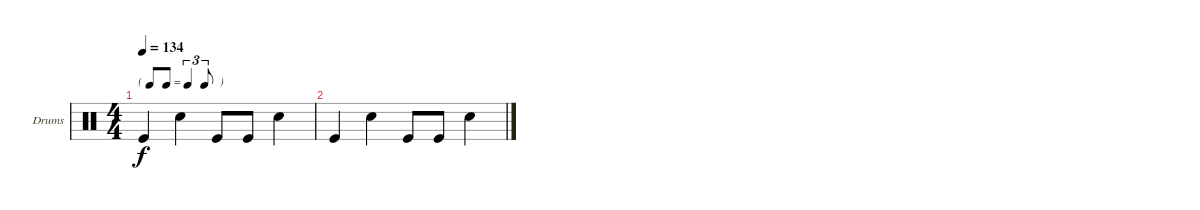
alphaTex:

\bracketExtendMode groupsimilarinstruments
\firstSystemTrackNameOrientation horizontal
\otherSystemsTrackNameOrientation horizontal
\track ("Drumkit" "Drums") {instrument percussion}
\staff {score}
\articulation defaults
\ts (4 4)
\tf triplet8th
\tempo 134
\clef neutral
\ks c "Kick (hit)".4{dy f} "Snare (hit) 2".4 "Kick (hit)".8 "Kick (hit)".8 "Snare (hit) 2".4
|
"Kick (hit)".4 "Snare (hit) 2".4 "Kick (hit)".8 "Kick (hit)".8 "Snare (hit) 2".4
